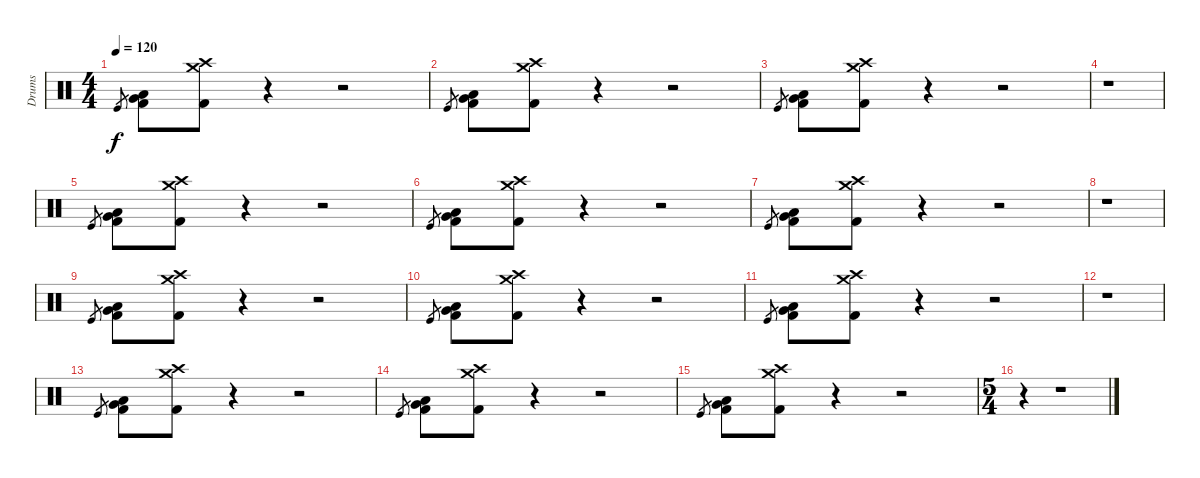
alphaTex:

\track ("Drums" "Drums") {instrument percussion}
\staff {score}
\articulation defaults
\ts (4 4)
\tempo 120
\tempo 118
\tempo 120
\clef neutral
\ks c "Kick (hit)".8{gr dy f}
("Very Low Tom (hit)" "Low Floor Tom (hit)" "Kick (hit) 2").8 ("Crash high (hit)" "Crash medium (hit)" "Kick (hit) 2").8 r.4 r.2 |
"Kick (hit)".8{gr} ("Very Low Tom (hit)" "Low Floor Tom (hit)" "Kick (hit) 2").8 ("Crash high (hit)" "Crash medium (hit)" "Kick (hit) 2").8 r.4 r.2 |
"Kick (hit)".8{gr} ("Very Low Tom (hit)" "Low Floor Tom (hit)" "Kick (hit) 2").8 ("Crash high (hit)" "Crash medium (hit)" "Kick (hit) 2").8 r.4 r.2 |
r.1 |
"Kick (hit)".8{gr} ("Very Low Tom (hit)" "Low Floor Tom (hit)" "Kick (hit) 2").8 ("Crash high (hit)" "Crash medium (hit)" "Kick (hit) 2").8 r.4 r.2 |
"Kick (hit)".8{gr} ("Very Low Tom (hit)" "Low Floor Tom (hit)" "Kick (hit) 2").8 ("Crash high (hit)" "Crash medium (hit)" "Kick (hit) 2").8 r.4 r.2 |
"Kick (hit)".8{gr} ("Very Low Tom (hit)" "Low Floor Tom (hit)" "Kick (hit) 2").8 ("Crash high (hit)" "Crash medium (hit)" "Kick (hit) 2").8 r.4 r.2 |
r.1 |
"Kick (hit)".8{gr} ("Very Low Tom (hit)" "Low Floor Tom (hit)" "Kick (hit) 2").8 ("Crash high (hit)" "Crash medium (hit)" "Kick (hit) 2").8 r.4 r.2 |
"Kick (hit)".8{gr} ("Very Low Tom (hit)" "Low Floor Tom (hit)" "Kick (hit) 2").8 ("Crash high (hit)" "Crash medium (hit)" "Kick (hit) 2").8 r.4 r.2 |
"Kick (hit)".8{gr} ("Very Low Tom (hit)" "Low Floor Tom (hit)" "Kick (hit) 2").8 ("Crash high (hit)" "Crash medium (hit)" "Kick (hit) 2").8 r.4 r.2 |
r.1 |
"Kick (hit)".8{gr} ("Very Low Tom (hit)" "Low Floor Tom (hit)" "Kick (hit) 2").8 ("Crash high (hit)" "Crash medium (hit)" "Kick (hit) 2").8 r.4 r.2 |
"Kick (hit)".8{gr} ("Very Low Tom (hit)" "Low Floor Tom (hit)" "Kick (hit) 2").8 ("Crash high (hit)" "Crash medium (hit)" "Kick (hit) 2").8 r.4 r.2 |
"Kick (hit)".8{gr} ("Very Low Tom (hit)" "Low Floor Tom (hit)" "Kick (hit) 2").8 ("Crash high (hit)" "Crash medium (hit)" "Kick (hit) 2").8 r.4 r.2 |
\ts (5 4)
r.4 r.1
